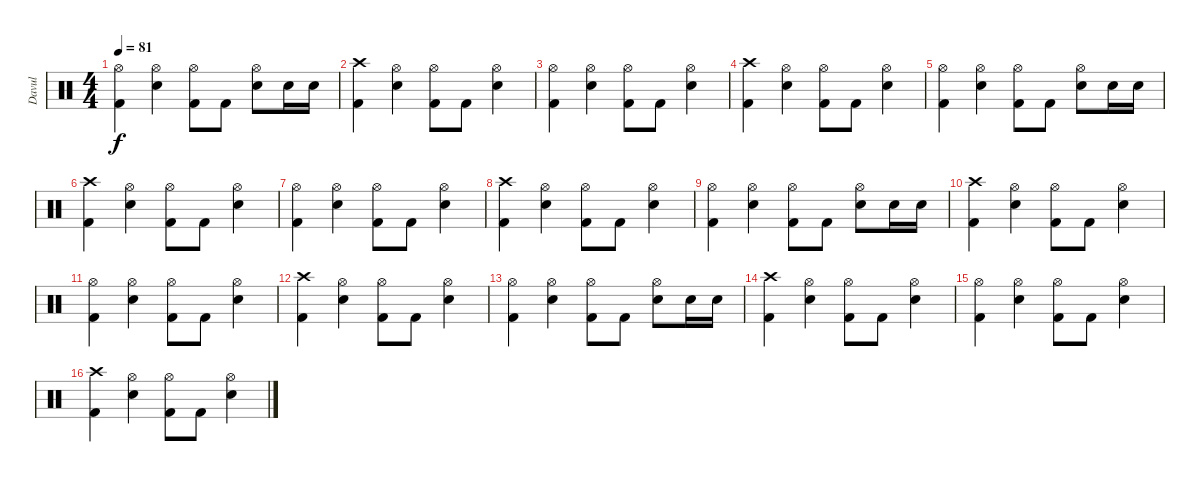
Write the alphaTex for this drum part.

\track ("Davul" "Davul") {instrument percussion}
\staff {score}
\articulation defaults
\ts (4 4)
\tempo 81
\clef neutral
\ks c
("Hi-Hat (open)" "Kick (hit) 2").4{dy f} ("Hi-Hat (open)" "Snare (hit) 2").4 ("Hi-Hat (open)" "Kick (hit) 2").8 "Kick (hit) 2".8 ("Hi-Hat (open)" "Snare (hit) 2").8 "Snare (hit) 2".16 "Snare (hit) 2".16 |
("Crash high (hit)" "Kick (hit) 2").4 ("Hi-Hat (open)" "Snare (hit) 2").4 ("Hi-Hat (open)" "Kick (hit) 2").8 "Kick (hit) 2".8 ("Hi-Hat (open)" "Snare (hit) 2").4 |
("Hi-Hat (open)" "Kick (hit) 2").4 ("Hi-Hat (open)" "Snare (hit) 2").4 ("Hi-Hat (open)" "Kick (hit) 2").8 "Kick (hit) 2".8 ("Hi-Hat (open)" "Snare (hit) 2").4 |
("Crash high (hit)" "Kick (hit) 2").4 ("Hi-Hat (open)" "Snare (hit) 2").4 ("Hi-Hat (open)" "Kick (hit) 2").8 "Kick (hit) 2".8 ("Hi-Hat (open)" "Snare (hit) 2").4 |
("Hi-Hat (open)" "Kick (hit) 2").4 ("Hi-Hat (open)" "Snare (hit) 2").4 ("Hi-Hat (open)" "Kick (hit) 2").8 "Kick (hit) 2".8 ("Hi-Hat (open)" "Snare (hit) 2").8 "Snare (hit) 2".16 "Snare (hit) 2".16 |
("Crash high (hit)" "Kick (hit) 2").4 ("Hi-Hat (open)" "Snare (hit) 2").4 ("Hi-Hat (open)" "Kick (hit) 2").8 "Kick (hit) 2".8 ("Hi-Hat (open)" "Snare (hit) 2").4 |
("Hi-Hat (open)" "Kick (hit) 2").4 ("Hi-Hat (open)" "Snare (hit) 2").4 ("Hi-Hat (open)" "Kick (hit) 2").8 "Kick (hit) 2".8 ("Hi-Hat (open)" "Snare (hit) 2").4 |
("Crash high (hit)" "Kick (hit) 2").4 ("Hi-Hat (open)" "Snare (hit) 2").4 ("Hi-Hat (open)" "Kick (hit) 2").8 "Kick (hit) 2".8 ("Hi-Hat (open)" "Snare (hit) 2").4 |
("Hi-Hat (open)" "Kick (hit) 2").4 ("Hi-Hat (open)" "Snare (hit) 2").4 ("Hi-Hat (open)" "Kick (hit) 2").8 "Kick (hit) 2".8 ("Hi-Hat (open)" "Snare (hit) 2").8 "Snare (hit) 2".16 "Snare (hit) 2".16 |
("Crash high (hit)" "Kick (hit) 2").4 ("Hi-Hat (open)" "Snare (hit) 2").4 ("Hi-Hat (open)" "Kick (hit) 2").8 "Kick (hit) 2".8 ("Hi-Hat (open)" "Snare (hit) 2").4 |
("Hi-Hat (open)" "Kick (hit) 2").4 ("Hi-Hat (open)" "Snare (hit) 2").4 ("Hi-Hat (open)" "Kick (hit) 2").8 "Kick (hit) 2".8 ("Hi-Hat (open)" "Snare (hit) 2").4 |
("Crash high (hit)" "Kick (hit) 2").4 ("Hi-Hat (open)" "Snare (hit) 2").4 ("Hi-Hat (open)" "Kick (hit) 2").8 "Kick (hit) 2".8 ("Hi-Hat (open)" "Snare (hit) 2").4 |
("Hi-Hat (open)" "Kick (hit) 2").4 ("Hi-Hat (open)" "Snare (hit) 2").4 ("Hi-Hat (open)" "Kick (hit) 2").8 "Kick (hit) 2".8 ("Hi-Hat (open)" "Snare (hit) 2").8 "Snare (hit) 2".16 "Snare (hit) 2".16 |
("Crash high (hit)" "Kick (hit) 2").4 ("Hi-Hat (open)" "Snare (hit) 2").4 ("Hi-Hat (open)" "Kick (hit) 2").8 "Kick (hit) 2".8 ("Hi-Hat (open)" "Snare (hit) 2").4 |
("Hi-Hat (open)" "Kick (hit) 2").4 ("Hi-Hat (open)" "Snare (hit) 2").4 ("Hi-Hat (open)" "Kick (hit) 2").8 "Kick (hit) 2".8 ("Hi-Hat (open)" "Snare (hit) 2").4 |
("Crash high (hit)" "Kick (hit) 2").4 ("Hi-Hat (open)" "Snare (hit) 2").4 ("Hi-Hat (open)" "Kick (hit) 2").8 "Kick (hit) 2".8 ("Hi-Hat (open)" "Snare (hit) 2").4
